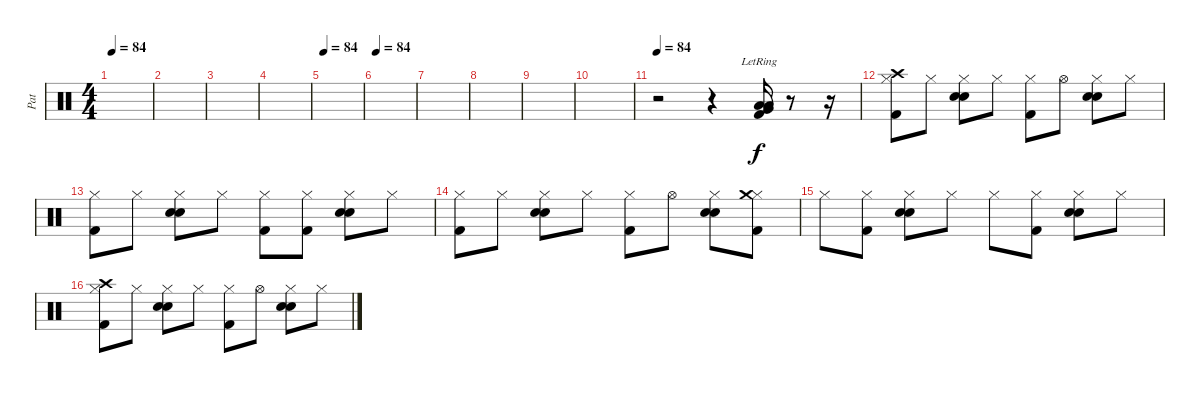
\track ("Pat" "Pat") {instrument percussion}
\staff {score}
\articulation defaults
\ts (4 4)
\tempo 84
\clef neutral
\ks c
|
|
|
|
\tempo 84
|
\tempo 84
|
|
|
|
|
\tempo 84
r.2 r.4 ("Low Tom (hit)"{lr} "Low Floor Tom (hit)"{lr} "Very Low Tom (hit)"{lr} "Kick (hit) 2"{lr}).16 r.8 r.16 |
("Hi-Hat (closed)" "Crash high (hit)" "Kick (hit) 2").8{dy f} "Hi-Hat (closed)".8 ("Hi-Hat (closed)" "Electric Snare (hit)" "Snare (hit) 2").8 "Hi-Hat (closed)".8 ("Hi-Hat (closed)" "Kick (hit) 2").8 "Hi-Hat (open)".8 ("Hi-Hat (closed)" "Electric Snare (hit)" "Snare (hit) 2").8 "Hi-Hat (closed)".8 |
("Hi-Hat (closed)" "Kick (hit) 2").8 "Hi-Hat (closed)".8 ("Hi-Hat (closed)" "Electric Snare (hit)" "Snare (hit) 2").8 "Hi-Hat (closed)".8 ("Hi-Hat (closed)" "Kick (hit) 2").8 ("Hi-Hat (closed)" "Kick (hit) 2").8 ("Hi-Hat (closed)" "Electric Snare (hit)" "Snare (hit) 2").8 "Hi-Hat (closed)".8 |
("Hi-Hat (closed)" "Kick (hit) 2").8 "Hi-Hat (closed)".8 ("Hi-Hat (closed)" "Electric Snare (hit)" "Snare (hit) 2").8 "Hi-Hat (closed)".8 ("Hi-Hat (closed)" "Kick (hit) 2").8 "Hi-Hat (open)".8 ("Hi-Hat (closed)" "Electric Snare (hit)" "Snare (hit) 2").8 ("Hi-Hat (closed)" "Crash medium (hit)" "Kick (hit) 2").8 |
"Hi-Hat (closed)".8 ("Hi-Hat (closed)" "Kick (hit) 2").8 ("Hi-Hat (closed)" "Electric Snare (hit)" "Snare (hit) 2").8 "Hi-Hat (closed)".8 "Hi-Hat (closed)".8 ("Hi-Hat (closed)" "Kick (hit) 2").8 ("Hi-Hat (closed)" "Electric Snare (hit)" "Snare (hit) 2").8 "Hi-Hat (closed)".8 |
("Hi-Hat (closed)" "Crash high (hit)" "Kick (hit) 2").8 "Hi-Hat (closed)".8 ("Hi-Hat (closed)" "Electric Snare (hit)" "Snare (hit) 2").8 "Hi-Hat (closed)".8 ("Hi-Hat (closed)" "Kick (hit) 2").8 "Hi-Hat (open)".8 ("Hi-Hat (closed)" "Electric Snare (hit)" "Snare (hit) 2").8 "Hi-Hat (closed)".8
